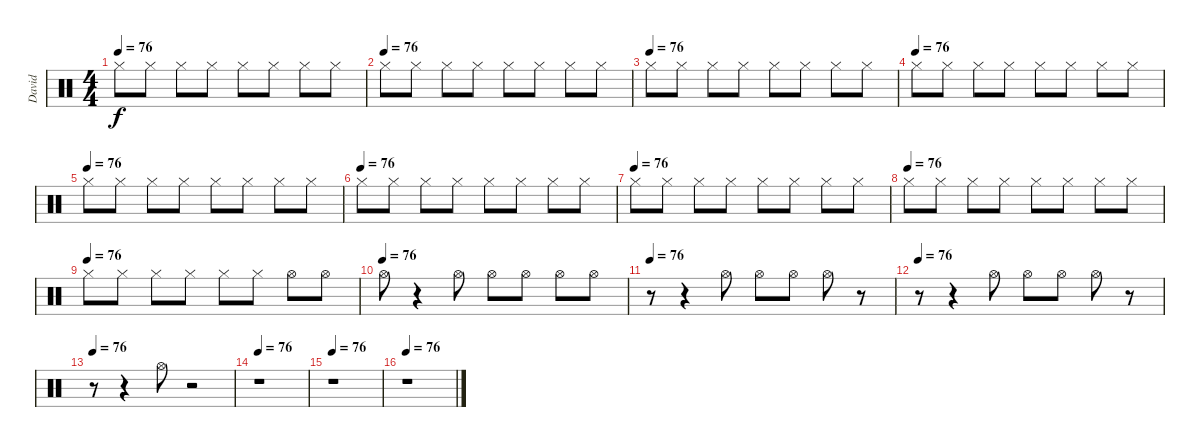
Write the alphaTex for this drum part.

\track ("David" "David") {instrument percussion}
\staff {score}
\articulation defaults
\ts (4 4)
\tempo 76
\clef neutral
\ks c "Hi-Hat (closed)".8{dy f} "Hi-Hat (closed)".8 "Hi-Hat (closed)".8 "Hi-Hat (closed)".8 "Hi-Hat (closed)".8 "Hi-Hat (closed)".8 "Hi-Hat (closed)".8 "Hi-Hat (closed)".8
|
\tempo (76)
"Hi-Hat (closed)".8 "Hi-Hat (closed)".8 "Hi-Hat (closed)".8 "Hi-Hat (closed)".8 "Hi-Hat (closed)".8 "Hi-Hat (closed)".8 "Hi-Hat (closed)".8 "Hi-Hat (closed)".8 |
\tempo (76)
"Hi-Hat (closed)".8 "Hi-Hat (closed)".8 "Hi-Hat (closed)".8 "Hi-Hat (closed)".8 "Hi-Hat (closed)".8 "Hi-Hat (closed)".8 "Hi-Hat (closed)".8 "Hi-Hat (closed)".8 |
\tempo (76)
"Hi-Hat (closed)".8 "Hi-Hat (closed)".8 "Hi-Hat (closed)".8 "Hi-Hat (closed)".8 "Hi-Hat (closed)".8 "Hi-Hat (closed)".8 "Hi-Hat (closed)".8 "Hi-Hat (closed)".8 |
\tempo (76)
"Hi-Hat (closed)".8 "Hi-Hat (closed)".8 "Hi-Hat (closed)".8 "Hi-Hat (closed)".8 "Hi-Hat (closed)".8 "Hi-Hat (closed)".8 "Hi-Hat (closed)".8 "Hi-Hat (closed)".8 |
\tempo (76)
"Hi-Hat (closed)".8 "Hi-Hat (closed)".8 "Hi-Hat (closed)".8 "Hi-Hat (closed)".8 "Hi-Hat (closed)".8 "Hi-Hat (closed)".8 "Hi-Hat (closed)".8 "Hi-Hat (closed)".8 |
\tempo (76)
"Hi-Hat (closed)".8 "Hi-Hat (closed)".8 "Hi-Hat (closed)".8 "Hi-Hat (closed)".8 "Hi-Hat (closed)".8 "Hi-Hat (closed)".8 "Hi-Hat (closed)".8 "Hi-Hat (closed)".8 |
\tempo (76)
"Hi-Hat (closed)".8 "Hi-Hat (closed)".8 "Hi-Hat (closed)".8 "Hi-Hat (closed)".8 "Hi-Hat (closed)".8 "Hi-Hat (closed)".8 "Hi-Hat (closed)".8 "Hi-Hat (closed)".8 |
\tempo (76)
"Hi-Hat (closed)".8 "Hi-Hat (closed)".8 "Hi-Hat (closed)".8 "Hi-Hat (closed)".8 "Hi-Hat (closed)".8 "Hi-Hat (closed)".8 "Hi-Hat (open)".8 "Hi-Hat (open)".8 |
\tempo (76)
"Hi-Hat (open)".8 r.4 "Hi-Hat (open)".8 "Hi-Hat (open)".8 "Hi-Hat (open)".8 "Hi-Hat (open)".8 "Hi-Hat (open)".8 |
\tempo 76
r.8 r.4 "Hi-Hat (open)".8 "Hi-Hat (open)".8 "Hi-Hat (open)".8 "Hi-Hat (open)".8 r.8 |
\tempo 76
r.8 r.4 "Hi-Hat (open)".8 "Hi-Hat (open)".8 "Hi-Hat (open)".8 "Hi-Hat (open)".8 r.8 |
\tempo 76
r.8 r.4 "Hi-Hat (open)".8 r.2 |
\tempo 76
r.1 |
\tempo 76
r.1 |
\tempo 76
r.1
